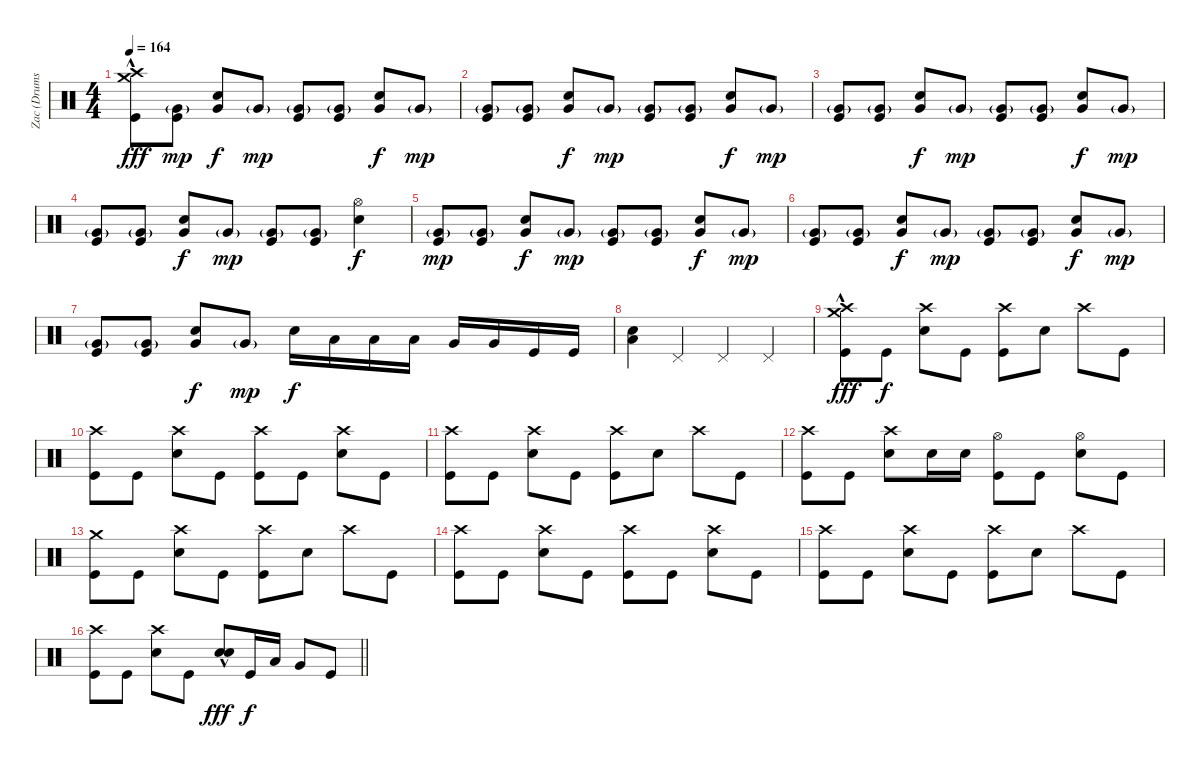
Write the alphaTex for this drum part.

\track ("Zac (Drums)" "Zac (Drums") {instrument percussion}
\staff {score}
\articulation defaults
\ts (4 4)
\tempo 164
\clef neutral
\ks c
("Crash high (hit)"{hac} "Crash medium (hit)" "Kick (hit)").8{dy fff} ("Very Low Tom (hit)"{g} "Kick (hit)").8{dy mp} ("Electric Snare (hit)" "Very Low Tom (hit)").8{dy f} "Very Low Tom (hit)"{g}.8{dy mp} ("Very Low Tom (hit)"{g} "Kick (hit)").8 ("Very Low Tom (hit)"{g} "Kick (hit)").8 ("Electric Snare (hit)" "Very Low Tom (hit)").8{dy f} "Very Low Tom (hit)"{g}.8{dy mp} |
("Very Low Tom (hit)"{g} "Kick (hit)").8 ("Very Low Tom (hit)"{g} "Kick (hit)").8 ("Electric Snare (hit)" "Very Low Tom (hit)").8{dy f} "Very Low Tom (hit)"{g}.8{dy mp} ("Very Low Tom (hit)"{g} "Kick (hit)").8 ("Very Low Tom (hit)"{g} "Kick (hit)").8 ("Electric Snare (hit)" "Very Low Tom (hit)").8{dy f} "Very Low Tom (hit)"{g}.8{dy mp} |
("Very Low Tom (hit)"{g} "Kick (hit)").8 ("Very Low Tom (hit)"{g} "Kick (hit)").8 ("Electric Snare (hit)" "Very Low Tom (hit)").8{dy f} "Very Low Tom (hit)"{g}.8{dy mp} ("Very Low Tom (hit)"{g} "Kick (hit)").8 ("Very Low Tom (hit)"{g} "Kick (hit)").8 ("Electric Snare (hit)" "Very Low Tom (hit)").8{dy f} "Very Low Tom (hit)"{g}.8{dy mp} |
("Very Low Tom (hit)"{g} "Kick (hit)").8 ("Very Low Tom (hit)"{g} "Kick (hit)").8 ("Electric Snare (hit)" "Very Low Tom (hit)").8{dy f} "Very Low Tom (hit)"{g}.8{dy mp} ("Very Low Tom (hit)"{g} "Kick (hit)").8 ("Very Low Tom (hit)"{g} "Kick (hit)").8 ("Hi-Hat (open)" "Electric Snare (hit)").4{dy f} |
("Very Low Tom (hit)"{g} "Kick (hit)").8{dy mp} ("Very Low Tom (hit)"{g} "Kick (hit)").8 ("Electric Snare (hit)" "Very Low Tom (hit)").8{dy f} "Very Low Tom (hit)"{g}.8{dy mp} ("Very Low Tom (hit)"{g} "Kick (hit)").8 ("Very Low Tom (hit)"{g} "Kick (hit)").8 ("Electric Snare (hit)" "Very Low Tom (hit)").8{dy f} "Very Low Tom (hit)"{g}.8{dy mp} |
("Very Low Tom (hit)"{g} "Kick (hit)").8 ("Very Low Tom (hit)"{g} "Kick (hit)").8 ("Electric Snare (hit)" "Very Low Tom (hit)").8{dy f} "Very Low Tom (hit)"{g}.8{dy mp} ("Very Low Tom (hit)"{g} "Kick (hit)").8 ("Very Low Tom (hit)"{g} "Kick (hit)").8 ("Electric Snare (hit)" "Very Low Tom (hit)").8{dy f} "Very Low Tom (hit)"{g}.8{dy mp} |
("Very Low Tom (hit)"{g} "Kick (hit)").8 ("Very Low Tom (hit)"{g} "Kick (hit)").8 ("Electric Snare (hit)" "Very Low Tom (hit)").8{dy f} "Very Low Tom (hit)"{g}.8{dy mp} "Electric Snare (hit)".16{dy f} "Low Tom (hit)".16 "Low Tom (hit)".16 "Low Tom (hit)".16 "Very Low Tom (hit)".16 "Very Low Tom (hit)".16 "Kick (hit)".16 "Kick (hit)".16 |
("Electric Snare (hit)" "Low Floor Tom (hit)").4 "Pedal Hi-Hat (hit)".4 "Pedal Hi-Hat (hit)".4 "Pedal Hi-Hat (hit)".4 |
("Crash high (hit)"{hac} "Crash medium (hit)" "Kick (hit)").8{dy fff} "Kick (hit)".8{dy f} ("Crash high (hit)" "Electric Snare (hit)").8 "Kick (hit)".8 ("Crash high (hit)" "Kick (hit)").8 "Electric Snare (hit)".8 "Crash high (hit)".8 "Kick (hit)".8 |
("Crash high (hit)" "Kick (hit)").8 "Kick (hit)".8 ("Crash high (hit)" "Electric Snare (hit)").8 "Kick (hit)".8 ("Crash high (hit)" "Kick (hit)").8 "Kick (hit)".8 ("Crash high (hit)" "Electric Snare (hit)").8 "Kick (hit)".8 |
("Crash high (hit)" "Kick (hit)").8 "Kick (hit)".8 ("Crash high (hit)" "Electric Snare (hit)").8 "Kick (hit)".8 ("Crash high (hit)" "Kick (hit)").8 "Electric Snare (hit)".8 "Crash high (hit)".8 "Kick (hit)".8 |
("Crash high (hit)" "Kick (hit)").8 "Kick (hit)".8 ("Crash high (hit)" "Electric Snare (hit)").8 "Electric Snare (hit)".16 "Electric Snare (hit)".16 ("Hi-Hat (open)" "Kick (hit)").8 "Kick (hit)".8 ("Hi-Hat (open)" "Electric Snare (hit)").8 "Kick (hit)".8 |
("Crash medium (hit)" "Kick (hit)").8 "Kick (hit)".8 ("Crash high (hit)" "Electric Snare (hit)").8 "Kick (hit)".8 ("Crash high (hit)" "Kick (hit)").8 "Electric Snare (hit)".8 "Crash high (hit)".8 "Kick (hit)".8 |
("Crash high (hit)" "Kick (hit)").8 "Kick (hit)".8 ("Crash high (hit)" "Electric Snare (hit)").8 "Kick (hit)".8 ("Crash high (hit)" "Kick (hit)").8 "Kick (hit)".8 ("Crash high (hit)" "Electric Snare (hit)").8 "Kick (hit)".8 |
("Crash high (hit)" "Kick (hit)").8 "Kick (hit)".8 ("Crash high (hit)" "Electric Snare (hit)").8 "Kick (hit)".8 ("Crash high (hit)" "Kick (hit)").8 "Electric Snare (hit)".8 "Crash high (hit)".8 "Kick (hit)".8 |
\barLineRight lightlight
("Crash high (hit)" "Kick (hit)").8 "Kick (hit)".8 ("Crash high (hit)" "Electric Snare (hit)").8 "Kick (hit)".8 ("Electric Snare (hit)"{hac} "Electric Snare (hit)"{hac}).8{dy fff} "Kick (hit)".16{dy f} "Low Tom (hit)".16 "Very Low Tom (hit)".8 "Kick (hit)".8
